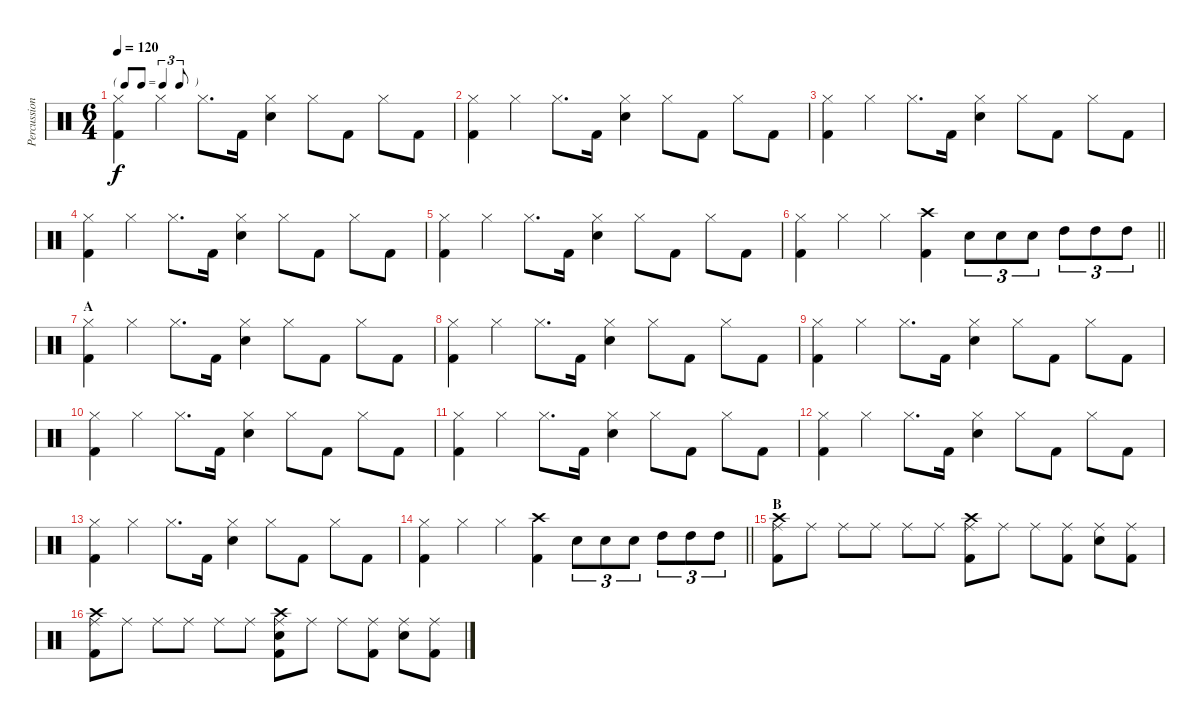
\track ("Percussion" "Percussion") {instrument percussion}
\staff {score}
\articulation defaults
\ts (6 4)
\tf triplet8th
\tempo 120
\clef neutral
\ks c
("Hi-Hat (closed)" "Kick (hit) 2").4{dy f} "Hi-Hat (closed)".4 "Hi-Hat (closed)".8{d} "Kick (hit) 2".16 ("Hi-Hat (closed)" "Snare (hit) 2").4 "Hi-Hat (closed)".8 "Kick (hit) 2".8 "Hi-Hat (closed)".8 "Kick (hit) 2".8 |
("Hi-Hat (closed)" "Kick (hit) 2").4 "Hi-Hat (closed)".4 "Hi-Hat (closed)".8{d} "Kick (hit) 2".16 ("Hi-Hat (closed)" "Snare (hit) 2").4 "Hi-Hat (closed)".8 "Kick (hit) 2".8 "Hi-Hat (closed)".8 "Kick (hit) 2".8 |
("Hi-Hat (closed)" "Kick (hit) 2").4 "Hi-Hat (closed)".4 "Hi-Hat (closed)".8{d} "Kick (hit) 2".16 ("Hi-Hat (closed)" "Snare (hit) 2").4 "Hi-Hat (closed)".8 "Kick (hit) 2".8 "Hi-Hat (closed)".8 "Kick (hit) 2".8 |
("Hi-Hat (closed)" "Kick (hit) 2").4 "Hi-Hat (closed)".4 "Hi-Hat (closed)".8{d} "Kick (hit) 2".16 ("Hi-Hat (closed)" "Snare (hit) 2").4 "Hi-Hat (closed)".8 "Kick (hit) 2".8 "Hi-Hat (closed)".8 "Kick (hit) 2".8 |
("Hi-Hat (closed)" "Kick (hit) 2").4 "Hi-Hat (closed)".4 "Hi-Hat (closed)".8{d} "Kick (hit) 2".16 ("Hi-Hat (closed)" "Snare (hit) 2").4 "Hi-Hat (closed)".8 "Kick (hit) 2".8 "Hi-Hat (closed)".8 "Kick (hit) 2".8 |
\barLineRight lightlight
("Hi-Hat (closed)" "Kick (hit) 2").4 "Hi-Hat (closed)".4 "Hi-Hat (closed)".4 ("Crash high (hit)" "Kick (hit) 2").4 "Snare (hit) 2".8{tu (3 2)} "Snare (hit) 2".8{tu (3 2)} "Snare (hit) 2".8{tu (3 2)} "High Tom (hit)".8{tu (3 2)} "High Tom (hit)".8{tu (3 2)} "High Tom (hit)".8{tu (3 2)} |
\section ("" "A")
("Hi-Hat (closed)" "Kick (hit) 2").4 "Hi-Hat (closed)".4 "Hi-Hat (closed)".8{d} "Kick (hit) 2".16 ("Hi-Hat (closed)" "Snare (hit) 2").4 "Hi-Hat (closed)".8 "Kick (hit) 2".8 "Hi-Hat (closed)".8 "Kick (hit) 2".8 |
("Hi-Hat (closed)" "Kick (hit) 2").4 "Hi-Hat (closed)".4 "Hi-Hat (closed)".8{d} "Kick (hit) 2".16 ("Hi-Hat (closed)" "Snare (hit) 2").4 "Hi-Hat (closed)".8 "Kick (hit) 2".8 "Hi-Hat (closed)".8 "Kick (hit) 2".8 |
("Hi-Hat (closed)" "Kick (hit) 2").4 "Hi-Hat (closed)".4 "Hi-Hat (closed)".8{d} "Kick (hit) 2".16 ("Hi-Hat (closed)" "Snare (hit) 2").4 "Hi-Hat (closed)".8 "Kick (hit) 2".8 "Hi-Hat (closed)".8 "Kick (hit) 2".8 |
("Hi-Hat (closed)" "Kick (hit) 2").4 "Hi-Hat (closed)".4 "Hi-Hat (closed)".8{d} "Kick (hit) 2".16 ("Hi-Hat (closed)" "Snare (hit) 2").4 "Hi-Hat (closed)".8 "Kick (hit) 2".8 "Hi-Hat (closed)".8 "Kick (hit) 2".8 |
("Hi-Hat (closed)" "Kick (hit) 2").4 "Hi-Hat (closed)".4 "Hi-Hat (closed)".8{d} "Kick (hit) 2".16 ("Hi-Hat (closed)" "Snare (hit) 2").4 "Hi-Hat (closed)".8 "Kick (hit) 2".8 "Hi-Hat (closed)".8 "Kick (hit) 2".8 |
("Hi-Hat (closed)" "Kick (hit) 2").4 "Hi-Hat (closed)".4 "Hi-Hat (closed)".8{d} "Kick (hit) 2".16 ("Hi-Hat (closed)" "Snare (hit) 2").4 "Hi-Hat (closed)".8 "Kick (hit) 2".8 "Hi-Hat (closed)".8 "Kick (hit) 2".8 |
("Hi-Hat (closed)" "Kick (hit) 2").4 "Hi-Hat (closed)".4 "Hi-Hat (closed)".8{d} "Kick (hit) 2".16 ("Hi-Hat (closed)" "Snare (hit) 2").4 "Hi-Hat (closed)".8 "Kick (hit) 2".8 "Hi-Hat (closed)".8 "Kick (hit) 2".8 |
\barLineRight lightlight
("Hi-Hat (closed)" "Kick (hit) 2").4 "Hi-Hat (closed)".4 "Hi-Hat (closed)".4 ("Crash high (hit)" "Kick (hit) 2").4 "Snare (hit) 2".8{tu (3 2)} "Snare (hit) 2".8{tu (3 2)} "Snare (hit) 2".8{tu (3 2)} "High Tom (hit)".8{tu (3 2)} "High Tom (hit)".8{tu (3 2)} "High Tom (hit)".8{tu (3 2)} |
\section ("" "B")
("Ride (middle)" "Crash high (hit)" "Kick (hit) 2").8 "Ride (middle)".8 "Ride (middle)".8 "Ride (middle)".8 "Ride (middle)".8 "Ride (middle)".8 ("Ride (middle)" "Crash high (hit)" "Kick (hit) 2").8 "Ride (middle)".8 "Ride (middle)".8 ("Ride (middle)" "Kick (hit) 2").8 ("Ride (middle)" "Snare (hit) 2").8 ("Ride (middle)" "Kick (hit) 2").8 |
("Ride (middle)" "Crash high (hit)" "Kick (hit) 2").8 "Ride (middle)".8 "Ride (middle)".8 "Ride (middle)".8 "Ride (middle)".8 "Ride (middle)".8 ("Ride (middle)" "Crash high (hit)" "Snare (hit) 2" "Kick (hit) 2").8 "Ride (middle)".8 "Ride (middle)".8 ("Ride (middle)" "Kick (hit) 2").8 ("Ride (middle)" "Snare (hit) 2").8 ("Ride (middle)" "Kick (hit) 2").8
